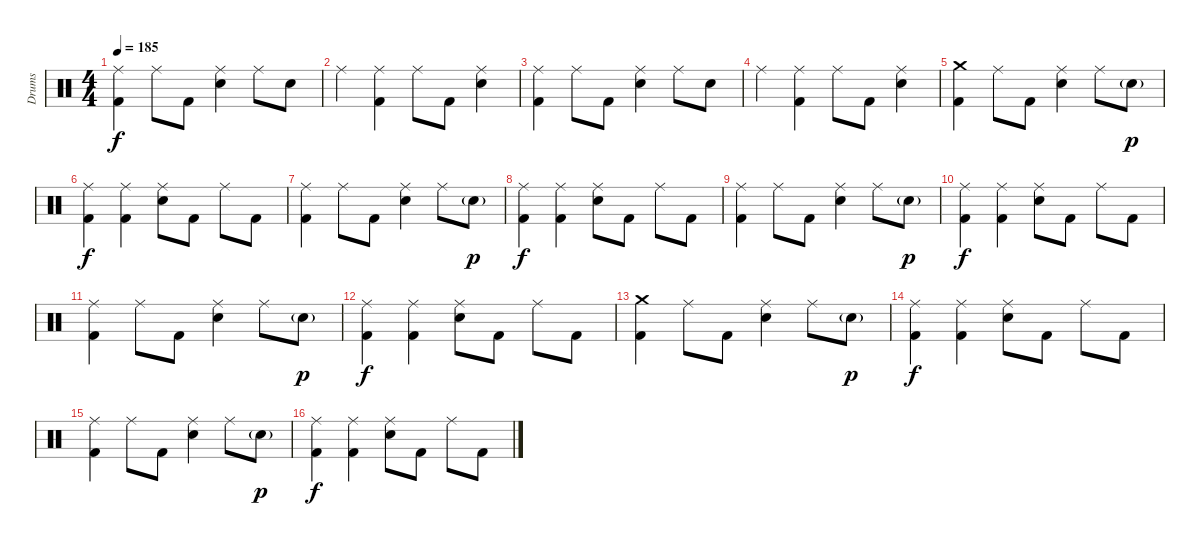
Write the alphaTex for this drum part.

\track ("Drums" "Drums") {instrument percussion}
\staff {score}
\articulation defaults
\ts (4 4)
\tempo 185
\clef neutral
\ks c
("Ride (middle)" "Kick (hit) 2").4{dy f} "Ride (middle)".8 "Kick (hit) 2".8 ("Ride (middle)" "Electric Snare (hit)").4 "Ride (middle)".8 "Electric Snare (hit)".8 |
"Ride (middle)".4 ("Ride (middle)" "Kick (hit) 2").4 "Ride (middle)".8 "Kick (hit) 2".8 ("Ride (middle)" "Electric Snare (hit)").4 |
("Ride (middle)" "Kick (hit) 2").4 "Ride (middle)".8 "Kick (hit) 2".8 ("Ride (middle)" "Electric Snare (hit)").4 "Ride (middle)".8 "Electric Snare (hit)".8 |
"Ride (middle)".4 ("Ride (middle)" "Kick (hit) 2").4 "Ride (middle)".8 "Kick (hit) 2".8 ("Ride (middle)" "Electric Snare (hit)").4 |
("Crash medium (hit)" "Kick (hit) 2").4 "Ride (middle)".8 "Kick (hit) 2".8 ("Ride (middle)" "Electric Snare (hit)").4 "Ride (middle)".8 "Electric Snare (hit)"{g}.8{dy p} |
("Ride (middle)" "Kick (hit) 2").4{dy f} ("Ride (middle)" "Kick (hit) 2").4 ("Ride (middle)" "Electric Snare (hit)").8 "Kick (hit) 2".8 "Ride (middle)".8 "Kick (hit) 2".8 |
("Ride (middle)" "Kick (hit) 2").4 "Ride (middle)".8 "Kick (hit) 2".8 ("Ride (middle)" "Electric Snare (hit)").4 "Ride (middle)".8 "Electric Snare (hit)"{g}.8{dy p} |
("Ride (middle)" "Kick (hit) 2").4{dy f} ("Ride (middle)" "Kick (hit) 2").4 ("Ride (middle)" "Electric Snare (hit)").8 "Kick (hit) 2".8 "Ride (middle)".8 "Kick (hit) 2".8 |
("Ride (middle)" "Kick (hit) 2").4 "Ride (middle)".8 "Kick (hit) 2".8 ("Ride (middle)" "Electric Snare (hit)").4 "Ride (middle)".8 "Electric Snare (hit)"{g}.8{dy p} |
("Ride (middle)" "Kick (hit) 2").4{dy f} ("Ride (middle)" "Kick (hit) 2").4 ("Ride (middle)" "Electric Snare (hit)").8 "Kick (hit) 2".8 "Ride (middle)".8 "Kick (hit) 2".8 |
("Ride (middle)" "Kick (hit) 2").4 "Ride (middle)".8 "Kick (hit) 2".8 ("Ride (middle)" "Electric Snare (hit)").4 "Ride (middle)".8 "Electric Snare (hit)"{g}.8{dy p} |
("Ride (middle)" "Kick (hit) 2").4{dy f} ("Ride (middle)" "Kick (hit) 2").4 ("Ride (middle)" "Electric Snare (hit)").8 "Kick (hit) 2".8 "Ride (middle)".8 "Kick (hit) 2".8 |
("Crash medium (hit)" "Kick (hit) 2").4 "Ride (middle)".8 "Kick (hit) 2".8 ("Ride (middle)" "Electric Snare (hit)").4 "Ride (middle)".8 "Electric Snare (hit)"{g}.8{dy p} |
("Ride (middle)" "Kick (hit) 2").4{dy f} ("Ride (middle)" "Kick (hit) 2").4 ("Ride (middle)" "Electric Snare (hit)").8 "Kick (hit) 2".8 "Ride (middle)".8 "Kick (hit) 2".8 |
("Ride (middle)" "Kick (hit) 2").4 "Ride (middle)".8 "Kick (hit) 2".8 ("Ride (middle)" "Electric Snare (hit)").4 "Ride (middle)".8 "Electric Snare (hit)"{g}.8{dy p} |
("Ride (middle)" "Kick (hit) 2").4{dy f} ("Ride (middle)" "Kick (hit) 2").4 ("Ride (middle)" "Electric Snare (hit)").8 "Kick (hit) 2".8 "Ride (middle)".8 "Kick (hit) 2".8
